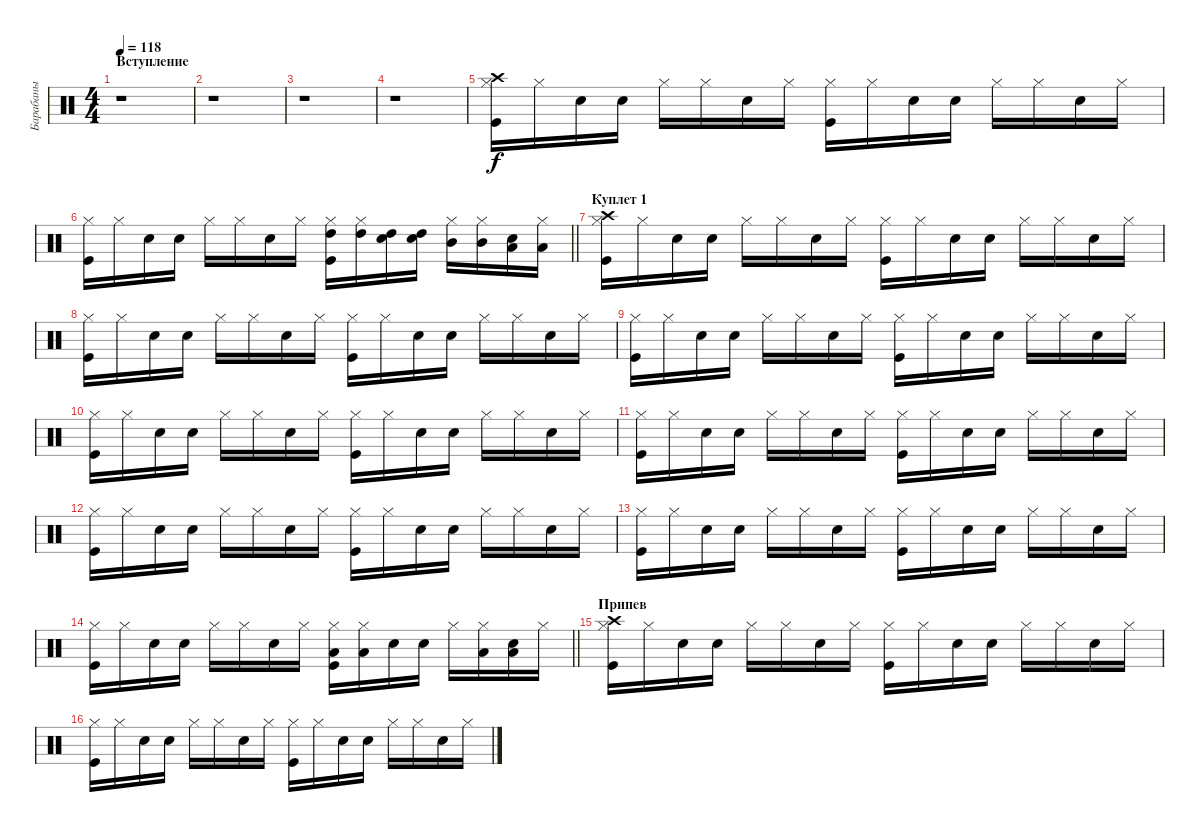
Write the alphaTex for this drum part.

\track ("Барабаны" "Барабаны") {instrument percussion}
\staff {score}
\articulation defaults
\ts (4 4)
\section ("" "Вступление")
\tempo 118
\clef neutral
\ks c
r.1{dy f} |
r.1 |
r.1 |
r.1 |
("Kick (hit)" "Hi-Hat (closed)" "Crash high (hit)").16 "Hi-Hat (closed)".16 "Snare (hit) 2".16 "Snare (hit) 2".16 "Hi-Hat (closed)".16 "Hi-Hat (closed)".16 "Snare (hit) 2".16 "Hi-Hat (closed)".16 ("Kick (hit)" "Hi-Hat (closed)").16 "Hi-Hat (closed)".16 "Snare (hit) 2".16 "Snare (hit) 2".16 "Hi-Hat (closed)".16 "Hi-Hat (closed)".16 "Snare (hit) 2".16 "Hi-Hat (closed)".16 |
\barLineRight lightlight
("Kick (hit)" "Hi-Hat (closed)").16 "Hi-Hat (closed)".16 "Snare (hit) 2".16 "Snare (hit) 2".16 "Hi-Hat (closed)".16 "Hi-Hat (closed)".16 "Snare (hit) 2".16 "Hi-Hat (closed)".16 ("Kick (hit)" "Hi-Hat (closed)" "High Tom (hit)").16 ("Hi-Hat (closed)" "High Tom (hit)").16 ("Snare (hit) 2" "High Tom (hit)").16 ("Snare (hit) 2" "High Tom (hit)").16 ("Hi-Hat (closed)" "Mid Tom (hit)").16 ("Hi-Hat (closed)" "Mid Tom (hit)").16 ("Snare (hit) 2" "Low Tom (hit)").16 ("Hi-Hat (closed)" "Low Tom (hit)").16 |
\section ("" "Куплет 1")
("Kick (hit)" "Hi-Hat (closed)" "Crash high (hit)").16 "Hi-Hat (closed)".16 "Snare (hit) 2".16 "Snare (hit) 2".16 "Hi-Hat (closed)".16 "Hi-Hat (closed)".16 "Snare (hit) 2".16 "Hi-Hat (closed)".16 ("Kick (hit)" "Hi-Hat (closed)").16 "Hi-Hat (closed)".16 "Snare (hit) 2".16 "Snare (hit) 2".16 "Hi-Hat (closed)".16 "Hi-Hat (closed)".16 "Snare (hit) 2".16 "Hi-Hat (closed)".16 |
("Kick (hit)" "Hi-Hat (closed)").16 "Hi-Hat (closed)".16 "Snare (hit) 2".16 "Snare (hit) 2".16 "Hi-Hat (closed)".16 "Hi-Hat (closed)".16 "Snare (hit) 2".16 "Hi-Hat (closed)".16 ("Kick (hit)" "Hi-Hat (closed)").16 "Hi-Hat (closed)".16 "Snare (hit) 2".16 "Snare (hit) 2".16 "Hi-Hat (closed)".16 "Hi-Hat (closed)".16 "Snare (hit) 2".16 "Hi-Hat (closed)".16 |
("Kick (hit)" "Hi-Hat (closed)").16 "Hi-Hat (closed)".16 "Snare (hit) 2".16 "Snare (hit) 2".16 "Hi-Hat (closed)".16 "Hi-Hat (closed)".16 "Snare (hit) 2".16 "Hi-Hat (closed)".16 ("Kick (hit)" "Hi-Hat (closed)").16 "Hi-Hat (closed)".16 "Snare (hit) 2".16 "Snare (hit) 2".16 "Hi-Hat (closed)".16 "Hi-Hat (closed)".16 "Snare (hit) 2".16 "Hi-Hat (closed)".16 |
("Kick (hit)" "Hi-Hat (closed)").16 "Hi-Hat (closed)".16 "Snare (hit) 2".16 "Snare (hit) 2".16 "Hi-Hat (closed)".16 "Hi-Hat (closed)".16 "Snare (hit) 2".16 "Hi-Hat (closed)".16 ("Kick (hit)" "Hi-Hat (closed)").16 "Hi-Hat (closed)".16 "Snare (hit) 2".16 "Snare (hit) 2".16 "Hi-Hat (closed)".16 "Hi-Hat (closed)".16 "Snare (hit) 2".16 "Hi-Hat (closed)".16 |
("Kick (hit)" "Hi-Hat (closed)").16 "Hi-Hat (closed)".16 "Snare (hit) 2".16 "Snare (hit) 2".16 "Hi-Hat (closed)".16 "Hi-Hat (closed)".16 "Snare (hit) 2".16 "Hi-Hat (closed)".16 ("Kick (hit)" "Hi-Hat (closed)").16 "Hi-Hat (closed)".16 "Snare (hit) 2".16 "Snare (hit) 2".16 "Hi-Hat (closed)".16 "Hi-Hat (closed)".16 "Snare (hit) 2".16 "Hi-Hat (closed)".16 |
("Kick (hit)" "Hi-Hat (closed)").16 "Hi-Hat (closed)".16 "Snare (hit) 2".16 "Snare (hit) 2".16 "Hi-Hat (closed)".16 "Hi-Hat (closed)".16 "Snare (hit) 2".16 "Hi-Hat (closed)".16 ("Kick (hit)" "Hi-Hat (closed)").16 "Hi-Hat (closed)".16 "Snare (hit) 2".16 "Snare (hit) 2".16 "Hi-Hat (closed)".16 "Hi-Hat (closed)".16 "Snare (hit) 2".16 "Hi-Hat (closed)".16 |
("Kick (hit)" "Hi-Hat (closed)").16 "Hi-Hat (closed)".16 "Snare (hit) 2".16 "Snare (hit) 2".16 "Hi-Hat (closed)".16 "Hi-Hat (closed)".16 "Snare (hit) 2".16 "Hi-Hat (closed)".16 ("Kick (hit)" "Hi-Hat (closed)").16 "Hi-Hat (closed)".16 "Snare (hit) 2".16 "Snare (hit) 2".16 "Hi-Hat (closed)".16 "Hi-Hat (closed)".16 "Snare (hit) 2".16 "Hi-Hat (closed)".16 |
\barLineRight lightlight
("Kick (hit)" "Hi-Hat (closed)").16 "Hi-Hat (closed)".16 "Snare (hit) 2".16 "Snare (hit) 2".16 "Hi-Hat (closed)".16 "Hi-Hat (closed)".16 "Snare (hit) 2".16 "Hi-Hat (closed)".16 ("Kick (hit)" "Hi-Hat (closed)" "Low Floor Tom (hit)").16 ("Hi-Hat (closed)" "Low Floor Tom (hit)").16 "Snare (hit) 2".16 "Snare (hit) 2".16 "Hi-Hat (closed)".16 ("Hi-Hat (closed)" "Low Floor Tom (hit)").16 ("Snare (hit) 2" "Low Floor Tom (hit)").16 "Hi-Hat (closed)".16 |
\section ("" "Припев")
("Kick (hit)" "Hi-Hat (closed)" "Crash high (hit)").16 "Hi-Hat (closed)".16 "Snare (hit) 2".16 "Snare (hit) 2".16 "Hi-Hat (closed)".16 "Hi-Hat (closed)".16 "Snare (hit) 2".16 "Hi-Hat (closed)".16 ("Kick (hit)" "Hi-Hat (closed)").16 "Hi-Hat (closed)".16 "Snare (hit) 2".16 "Snare (hit) 2".16 "Hi-Hat (closed)".16 "Hi-Hat (closed)".16 "Snare (hit) 2".16 "Hi-Hat (closed)".16 |
("Kick (hit)" "Hi-Hat (closed)").16 "Hi-Hat (closed)".16 "Snare (hit) 2".16 "Snare (hit) 2".16 "Hi-Hat (closed)".16 "Hi-Hat (closed)".16 "Snare (hit) 2".16 "Hi-Hat (closed)".16 ("Kick (hit)" "Hi-Hat (closed)").16 "Hi-Hat (closed)".16 "Snare (hit) 2".16 "Snare (hit) 2".16 "Hi-Hat (closed)".16 "Hi-Hat (closed)".16 "Snare (hit) 2".16 "Hi-Hat (closed)".16
